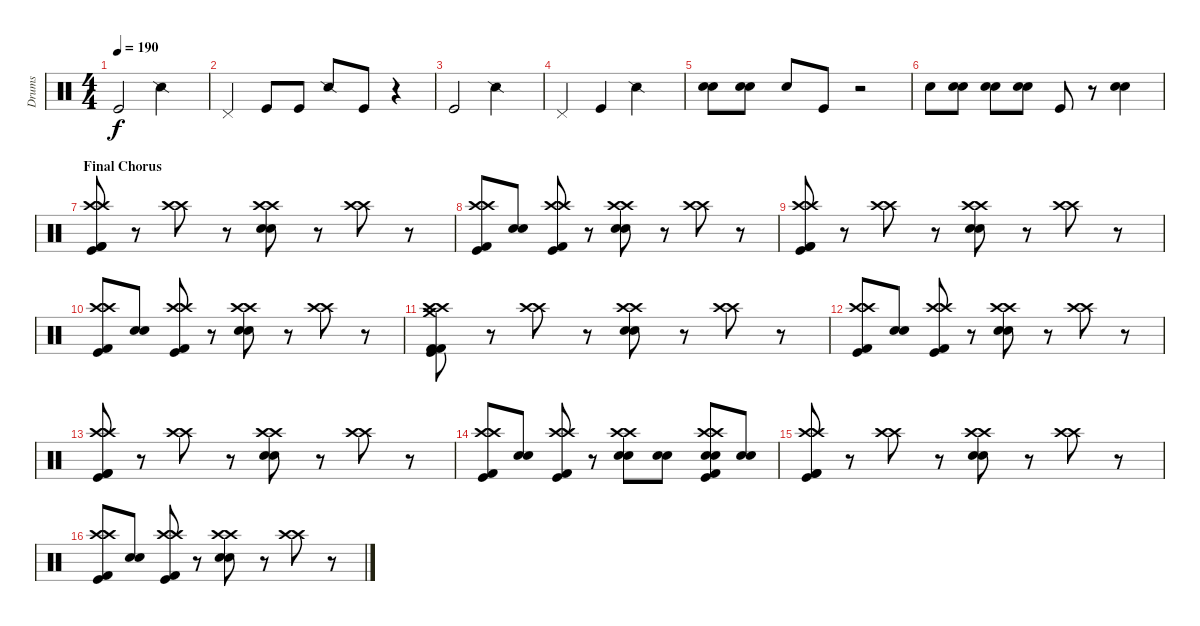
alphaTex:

\track ("Drums" "Drums") {instrument percussion}
\staff {score}
\articulation defaults
\ts (4 4)
\tempo 190
\clef neutral
\ks c "Kick (hit)".2{dy f} "Snare (side stick) 2".2
|
"Pedal Hi-Hat (hit)".4 "Kick (hit)".8 "Kick (hit)".8 "Snare (side stick) 2".8 "Kick (hit)".8 r.4 |
"Kick (hit)".2 "Snare (side stick) 2".2 |
"Pedal Hi-Hat (hit)".4 "Kick (hit)".4 "Snare (side stick) 2".2 |
("Electric Snare (hit)" "Electric Snare (hit)").8 ("Electric Snare (hit)" "Electric Snare (hit)").8 "Electric Snare (hit)".8 "Kick (hit)".8 r.2 |
"Electric Snare (hit)".8 ("Electric Snare (hit)" "Electric Snare (hit)").8 ("Electric Snare (hit)" "Electric Snare (hit)").8 ("Electric Snare (hit)" "Electric Snare (hit)").8 "Kick (hit)".8 r.8 ("Electric Snare (hit)" "Electric Snare (hit)").4 |
\section ("" "Final Chorus")
("Crash high (hit)" "Crash high (hit)" "Kick (hit) 2" "Kick (hit) 2" "Kick (hit)").8 r.8 ("Crash high (hit)" "Crash high (hit)").8 r.8 ("Crash high (hit)" "Crash high (hit)" "Electric Snare (hit)" "Electric Snare (hit)").8 r.8 ("Crash high (hit)" "Crash high (hit)").8 r.8 |
("Crash high (hit)" "Crash high (hit)" "Kick (hit) 2" "Kick (hit)").8 ("Electric Snare (hit)" "Electric Snare (hit)").8 ("Crash high (hit)" "Crash high (hit)" "Kick (hit) 2" "Kick (hit)").8 r.8 ("Crash high (hit)" "Crash high (hit)" "Electric Snare (hit)" "Electric Snare (hit)").8 r.8 ("Crash high (hit)" "Crash high (hit)").8 r.8 |
("Crash high (hit)" "Crash high (hit)" "Kick (hit) 2" "Kick (hit) 2" "Kick (hit)").8 r.8 ("Crash high (hit)" "Crash high (hit)").8 r.8 ("Crash high (hit)" "Crash high (hit)" "Electric Snare (hit)" "Electric Snare (hit)").8 r.8 ("Crash high (hit)" "Crash high (hit)").8 r.8 |
("Crash high (hit)" "Crash high (hit)" "Kick (hit) 2" "Kick (hit)").8 ("Electric Snare (hit)" "Electric Snare (hit)").8 ("Crash high (hit)" "Crash high (hit)" "Kick (hit) 2" "Kick (hit)").8 r.8 ("Crash high (hit)" "Crash high (hit)" "Electric Snare (hit)" "Electric Snare (hit)").8 r.8 ("Crash high (hit)" "Crash high (hit)").8 r.8 |
("Crash high (hit)" "Crash high (hit)" "Crash medium (hit)" "Kick (hit) 2" "Kick (hit) 2" "Kick (hit)").8 r.8 ("Crash high (hit)" "Crash high (hit)").8 r.8 ("Crash high (hit)" "Crash high (hit)" "Electric Snare (hit)" "Electric Snare (hit)").8 r.8 ("Crash high (hit)" "Crash high (hit)").8 r.8 |
("Crash high (hit)" "Crash high (hit)" "Kick (hit) 2" "Kick (hit)").8 ("Electric Snare (hit)" "Electric Snare (hit)").8 ("Crash high (hit)" "Crash high (hit)" "Kick (hit) 2" "Kick (hit)").8 r.8 ("Crash high (hit)" "Crash high (hit)" "Electric Snare (hit)" "Electric Snare (hit)").8 r.8 ("Crash high (hit)" "Crash high (hit)").8 r.8 |
("Crash high (hit)" "Crash high (hit)" "Kick (hit) 2" "Kick (hit) 2" "Kick (hit)").8 r.8 ("Crash high (hit)" "Crash high (hit)").8 r.8 ("Crash high (hit)" "Crash high (hit)" "Electric Snare (hit)" "Electric Snare (hit)").8 r.8 ("Crash high (hit)" "Crash high (hit)").8 r.8 |
("Crash high (hit)" "Crash high (hit)" "Kick (hit) 2" "Kick (hit)").8 ("Electric Snare (hit)" "Electric Snare (hit)").8 ("Crash high (hit)" "Crash high (hit)" "Kick (hit) 2" "Kick (hit)").8 r.8 ("Crash high (hit)" "Crash high (hit)" "Electric Snare (hit)" "Electric Snare (hit)").8 ("Electric Snare (hit)" "Electric Snare (hit)").8 ("Crash high (hit)" "Crash high (hit)" "Electric Snare (hit)" "Electric Snare (hit)" "Kick (hit) 2" "Kick (hit)").8 ("Electric Snare (hit)" "Electric Snare (hit)").8 |
("Crash high (hit)" "Crash high (hit)" "Kick (hit) 2" "Kick (hit) 2" "Kick (hit)").8 r.8 ("Crash high (hit)" "Crash high (hit)").8 r.8 ("Crash high (hit)" "Crash high (hit)" "Electric Snare (hit)" "Electric Snare (hit)").8 r.8 ("Crash high (hit)" "Crash high (hit)").8 r.8 |
("Crash high (hit)" "Crash high (hit)" "Kick (hit) 2" "Kick (hit)").8 ("Electric Snare (hit)" "Electric Snare (hit)").8 ("Crash high (hit)" "Crash high (hit)" "Kick (hit) 2" "Kick (hit)").8 r.8 ("Crash high (hit)" "Crash high (hit)" "Electric Snare (hit)" "Electric Snare (hit)").8 r.8 ("Crash high (hit)" "Crash high (hit)").8 r.8
